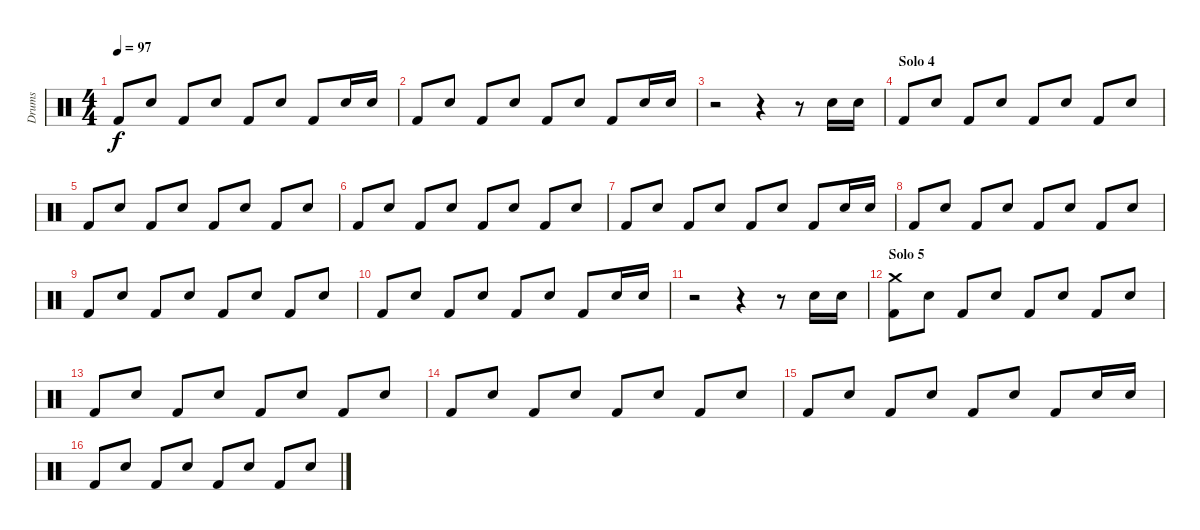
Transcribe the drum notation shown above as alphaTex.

\track ("Drums" "Drums") {instrument percussion}
\staff {score}
\articulation defaults
\ts (4 4)
\tempo 97
\clef neutral
\ks c "Kick (hit) 2".8{dy f} "Electric Snare (hit)".8 "Kick (hit) 2".8 "Electric Snare (hit)".8 "Kick (hit) 2".8 "Electric Snare (hit)".8 "Kick (hit) 2".8 "Electric Snare (hit)".16 "Electric Snare (hit)".16
|
"Kick (hit) 2".8 "Electric Snare (hit)".8 "Kick (hit) 2".8 "Electric Snare (hit)".8 "Kick (hit) 2".8 "Electric Snare (hit)".8 "Kick (hit) 2".8 "Electric Snare (hit)".16 "Electric Snare (hit)".16 |
r.2 r.4 r.8 "Electric Snare (hit)".16 "Electric Snare (hit)".16 |
\section ("" "Solo 4")
"Kick (hit) 2".8 "Electric Snare (hit)".8 "Kick (hit) 2".8 "Electric Snare (hit)".8 "Kick (hit) 2".8 "Electric Snare (hit)".8 "Kick (hit) 2".8 "Electric Snare (hit)".8 |
"Kick (hit) 2".8 "Electric Snare (hit)".8 "Kick (hit) 2".8 "Electric Snare (hit)".8 "Kick (hit) 2".8 "Electric Snare (hit)".8 "Kick (hit) 2".8 "Electric Snare (hit)".8 |
"Kick (hit) 2".8 "Electric Snare (hit)".8 "Kick (hit) 2".8 "Electric Snare (hit)".8 "Kick (hit) 2".8 "Electric Snare (hit)".8 "Kick (hit) 2".8 "Electric Snare (hit)".8 |
"Kick (hit) 2".8 "Electric Snare (hit)".8 "Kick (hit) 2".8 "Electric Snare (hit)".8 "Kick (hit) 2".8 "Electric Snare (hit)".8 "Kick (hit) 2".8 "Electric Snare (hit)".16 "Electric Snare (hit)".16 |
"Kick (hit) 2".8 "Electric Snare (hit)".8 "Kick (hit) 2".8 "Electric Snare (hit)".8 "Kick (hit) 2".8 "Electric Snare (hit)".8 "Kick (hit) 2".8 "Electric Snare (hit)".8 |
"Kick (hit) 2".8 "Electric Snare (hit)".8 "Kick (hit) 2".8 "Electric Snare (hit)".8 "Kick (hit) 2".8 "Electric Snare (hit)".8 "Kick (hit) 2".8 "Electric Snare (hit)".8 |
"Kick (hit) 2".8 "Electric Snare (hit)".8 "Kick (hit) 2".8 "Electric Snare (hit)".8 "Kick (hit) 2".8 "Electric Snare (hit)".8 "Kick (hit) 2".8 "Electric Snare (hit)".16 "Electric Snare (hit)".16 |
r.2 r.4 r.8 "Electric Snare (hit)".16 "Electric Snare (hit)".16 |
\section ("" "Solo 5")
("Kick (hit) 2" "Crash medium (hit)").8 "Electric Snare (hit)".8 "Kick (hit) 2".8 "Electric Snare (hit)".8 "Kick (hit) 2".8 "Electric Snare (hit)".8 "Kick (hit) 2".8 "Electric Snare (hit)".8 |
"Kick (hit) 2".8 "Electric Snare (hit)".8 "Kick (hit) 2".8 "Electric Snare (hit)".8 "Kick (hit) 2".8 "Electric Snare (hit)".8 "Kick (hit) 2".8 "Electric Snare (hit)".8 |
"Kick (hit) 2".8 "Electric Snare (hit)".8 "Kick (hit) 2".8 "Electric Snare (hit)".8 "Kick (hit) 2".8 "Electric Snare (hit)".8 "Kick (hit) 2".8 "Electric Snare (hit)".8 |
"Kick (hit) 2".8 "Electric Snare (hit)".8 "Kick (hit) 2".8 "Electric Snare (hit)".8 "Kick (hit) 2".8 "Electric Snare (hit)".8 "Kick (hit) 2".8 "Electric Snare (hit)".16 "Electric Snare (hit)".16 |
"Kick (hit) 2".8 "Electric Snare (hit)".8 "Kick (hit) 2".8 "Electric Snare (hit)".8 "Kick (hit) 2".8 "Electric Snare (hit)".8 "Kick (hit) 2".8 "Electric Snare (hit)".8
